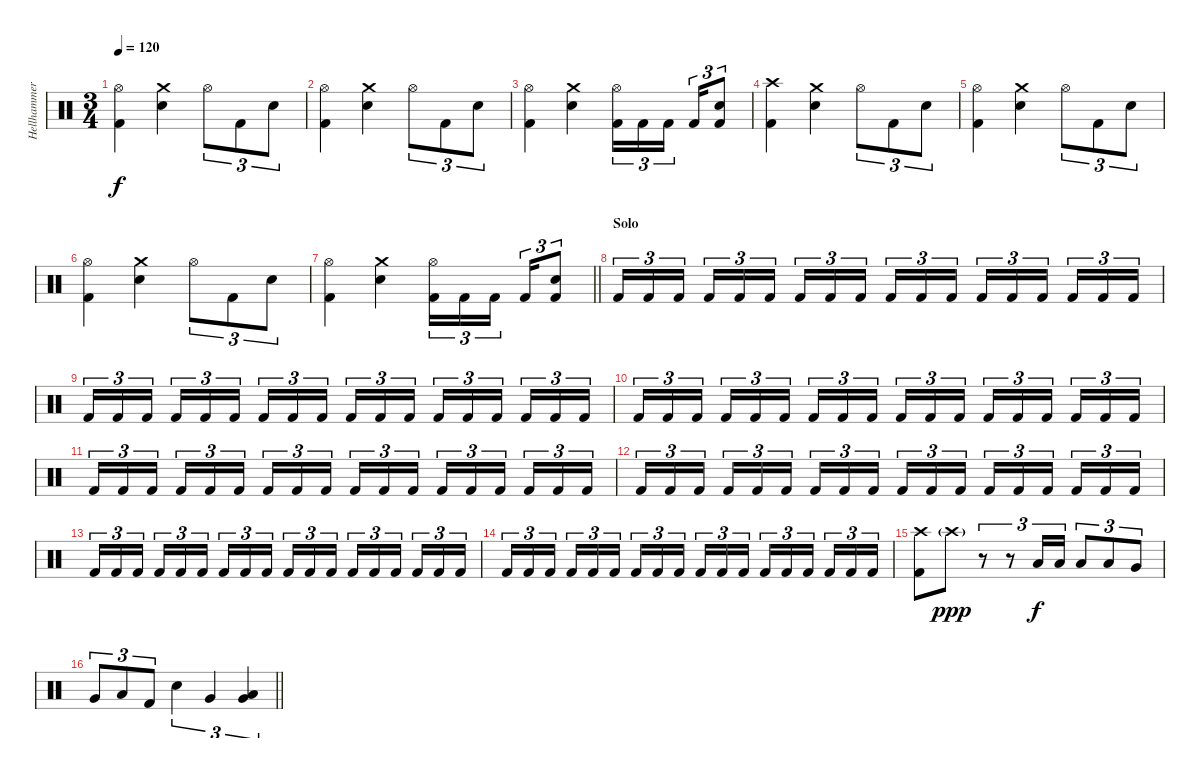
\track ("Hellhammer" "Hellhammer") {instrument percussion}
\staff {score}
\articulation defaults
\ts (3 4)
\tempo 120
\clef neutral
\ks c
("Hi-Hat (open)" "Kick (hit) 2").4{dy f} ("Crash medium (hit)" "Snare (hit) 2").4 "Hi-Hat (open)".8{tu (3 2)} "Kick (hit) 2".8{tu (3 2)} "Snare (hit) 2".8{tu (3 2)} |
("Hi-Hat (open)" "Kick (hit) 2").4 ("Crash medium (hit)" "Snare (hit) 2").4 "Hi-Hat (open)".8{tu (3 2)} "Kick (hit) 2".8{tu (3 2)} "Snare (hit) 2".8{tu (3 2)} |
("Hi-Hat (open)" "Kick (hit) 2").4 ("Crash medium (hit)" "Snare (hit) 2").4 ("Hi-Hat (open)" "Kick (hit) 2").16{tu (3 2)} "Kick (hit) 2".16{tu (3 2)} "Kick (hit) 2".16{tu (3 2) beam splitsecondary} "Kick (hit) 2".16{tu (3 2)} ("Snare (hit) 2" "Kick (hit) 2").8{tu (3 2)} |
("Crash high (hit)" "Kick (hit) 2").4 ("Crash medium (hit)" "Snare (hit) 2").4 "Hi-Hat (open)".8{tu (3 2)} "Kick (hit) 2".8{tu (3 2)} "Snare (hit) 2".8{tu (3 2)} |
("Hi-Hat (open)" "Kick (hit) 2").4 ("Crash medium (hit)" "Snare (hit) 2").4 "Hi-Hat (open)".8{tu (3 2)} "Kick (hit) 2".8{tu (3 2)} "Snare (hit) 2".8{tu (3 2)} |
("Hi-Hat (open)" "Kick (hit) 2").4 ("Crash medium (hit)" "Snare (hit) 2").4 "Hi-Hat (open)".8{tu (3 2)} "Kick (hit) 2".8{tu (3 2)} "Snare (hit) 2".8{tu (3 2)} |
\barLineRight lightlight
("Hi-Hat (open)" "Kick (hit) 2").4 ("Crash medium (hit)" "Snare (hit) 2").4 ("Hi-Hat (open)" "Kick (hit) 2").16{tu (3 2)} "Kick (hit) 2".16{tu (3 2)} "Kick (hit) 2".16{tu (3 2) beam splitsecondary} "Kick (hit) 2".16{tu (3 2)} ("Snare (hit) 2" "Kick (hit) 2").8{tu (3 2)} |
\section ("" "Solo ")
"Kick (hit) 2".16{tu (3 2)} "Kick (hit) 2".16{tu (3 2)} "Kick (hit) 2".16{tu (3 2) beam splitsecondary} "Kick (hit) 2".16{tu (3 2)} "Kick (hit) 2".16{tu (3 2)} "Kick (hit) 2".16{tu (3 2)} "Kick (hit) 2".16{tu (3 2)} "Kick (hit) 2".16{tu (3 2)} "Kick (hit) 2".16{tu (3 2) beam splitsecondary} "Kick (hit) 2".16{tu (3 2)} "Kick (hit) 2".16{tu (3 2)} "Kick (hit) 2".16{tu (3 2)} "Kick (hit) 2".16{tu (3 2)} "Kick (hit) 2".16{tu (3 2)} "Kick (hit) 2".16{tu (3 2) beam splitsecondary} "Kick (hit) 2".16{tu (3 2)} "Kick (hit) 2".16{tu (3 2)} "Kick (hit) 2".16{tu (3 2)} |
"Kick (hit) 2".16{tu (3 2)} "Kick (hit) 2".16{tu (3 2)} "Kick (hit) 2".16{tu (3 2) beam splitsecondary} "Kick (hit) 2".16{tu (3 2)} "Kick (hit) 2".16{tu (3 2)} "Kick (hit) 2".16{tu (3 2)} "Kick (hit) 2".16{tu (3 2)} "Kick (hit) 2".16{tu (3 2)} "Kick (hit) 2".16{tu (3 2) beam splitsecondary} "Kick (hit) 2".16{tu (3 2)} "Kick (hit) 2".16{tu (3 2)} "Kick (hit) 2".16{tu (3 2)} "Kick (hit) 2".16{tu (3 2)} "Kick (hit) 2".16{tu (3 2)} "Kick (hit) 2".16{tu (3 2) beam splitsecondary} "Kick (hit) 2".16{tu (3 2)} "Kick (hit) 2".16{tu (3 2)} "Kick (hit) 2".16{tu (3 2)} |
"Kick (hit) 2".16{tu (3 2)} "Kick (hit) 2".16{tu (3 2)} "Kick (hit) 2".16{tu (3 2) beam splitsecondary} "Kick (hit) 2".16{tu (3 2)} "Kick (hit) 2".16{tu (3 2)} "Kick (hit) 2".16{tu (3 2)} "Kick (hit) 2".16{tu (3 2)} "Kick (hit) 2".16{tu (3 2)} "Kick (hit) 2".16{tu (3 2) beam splitsecondary} "Kick (hit) 2".16{tu (3 2)} "Kick (hit) 2".16{tu (3 2)} "Kick (hit) 2".16{tu (3 2)} "Kick (hit) 2".16{tu (3 2)} "Kick (hit) 2".16{tu (3 2)} "Kick (hit) 2".16{tu (3 2) beam splitsecondary} "Kick (hit) 2".16{tu (3 2)} "Kick (hit) 2".16{tu (3 2)} "Kick (hit) 2".16{tu (3 2)} |
"Kick (hit) 2".16{tu (3 2)} "Kick (hit) 2".16{tu (3 2)} "Kick (hit) 2".16{tu (3 2) beam splitsecondary} "Kick (hit) 2".16{tu (3 2)} "Kick (hit) 2".16{tu (3 2)} "Kick (hit) 2".16{tu (3 2)} "Kick (hit) 2".16{tu (3 2)} "Kick (hit) 2".16{tu (3 2)} "Kick (hit) 2".16{tu (3 2) beam splitsecondary} "Kick (hit) 2".16{tu (3 2)} "Kick (hit) 2".16{tu (3 2)} "Kick (hit) 2".16{tu (3 2)} "Kick (hit) 2".16{tu (3 2)} "Kick (hit) 2".16{tu (3 2)} "Kick (hit) 2".16{tu (3 2) beam splitsecondary} "Kick (hit) 2".16{tu (3 2)} "Kick (hit) 2".16{tu (3 2)} "Kick (hit) 2".16{tu (3 2)} |
"Kick (hit) 2".16{tu (3 2)} "Kick (hit) 2".16{tu (3 2)} "Kick (hit) 2".16{tu (3 2) beam splitsecondary} "Kick (hit) 2".16{tu (3 2)} "Kick (hit) 2".16{tu (3 2)} "Kick (hit) 2".16{tu (3 2)} "Kick (hit) 2".16{tu (3 2)} "Kick (hit) 2".16{tu (3 2)} "Kick (hit) 2".16{tu (3 2) beam splitsecondary} "Kick (hit) 2".16{tu (3 2)} "Kick (hit) 2".16{tu (3 2)} "Kick (hit) 2".16{tu (3 2)} "Kick (hit) 2".16{tu (3 2)} "Kick (hit) 2".16{tu (3 2)} "Kick (hit) 2".16{tu (3 2) beam splitsecondary} "Kick (hit) 2".16{tu (3 2)} "Kick (hit) 2".16{tu (3 2)} "Kick (hit) 2".16{tu (3 2)} |
"Kick (hit) 2".16{tu (3 2)} "Kick (hit) 2".16{tu (3 2)} "Kick (hit) 2".16{tu (3 2) beam splitsecondary} "Kick (hit) 2".16{tu (3 2)} "Kick (hit) 2".16{tu (3 2)} "Kick (hit) 2".16{tu (3 2)} "Kick (hit) 2".16{tu (3 2)} "Kick (hit) 2".16{tu (3 2)} "Kick (hit) 2".16{tu (3 2) beam splitsecondary} "Kick (hit) 2".16{tu (3 2)} "Kick (hit) 2".16{tu (3 2)} "Kick (hit) 2".16{tu (3 2)} "Kick (hit) 2".16{tu (3 2)} "Kick (hit) 2".16{tu (3 2)} "Kick (hit) 2".16{tu (3 2) beam splitsecondary} "Kick (hit) 2".16{tu (3 2)} "Kick (hit) 2".16{tu (3 2)} "Kick (hit) 2".16{tu (3 2)} |
"Kick (hit) 2".16{tu (3 2)} "Kick (hit) 2".16{tu (3 2)} "Kick (hit) 2".16{tu (3 2) beam splitsecondary} "Kick (hit) 2".16{tu (3 2)} "Kick (hit) 2".16{tu (3 2)} "Kick (hit) 2".16{tu (3 2)} "Kick (hit) 2".16{tu (3 2)} "Kick (hit) 2".16{tu (3 2)} "Kick (hit) 2".16{tu (3 2) beam splitsecondary} "Kick (hit) 2".16{tu (3 2)} "Kick (hit) 2".16{tu (3 2)} "Kick (hit) 2".16{tu (3 2)} "Kick (hit) 2".16{tu (3 2)} "Kick (hit) 2".16{tu (3 2)} "Kick (hit) 2".16{tu (3 2) beam splitsecondary} "Kick (hit) 2".16{tu (3 2)} "Kick (hit) 2".16{tu (3 2)} "Kick (hit) 2".16{tu (3 2)} |
("Crash high (hit)" "Kick (hit) 2").8 "Crash high (hit)"{g}.8{dy ppp} r.8{tu (3 2)} r.8{tu (3 2)} "Low Tom (hit)".16{tu (3 2) dy f} "Low Tom (hit)".16{tu (3 2)} "Low Tom (hit)".8{tu (3 2)} "Low Tom (hit)".8{tu (3 2)} "Very Low Tom (hit)".8{tu (3 2)} |
\barLineRight lightlight "Very Low Tom (hit)".8{tu (3 2)} "Low Floor Tom (hit)".8{tu (3 2)} "Kick (hit) 2".8{tu (3 2)} "Snare (hit) 2".4{tu (3 2)} "Very Low Tom (hit)".4{tu (3 2)}
("Very Low Tom (hit)" "Low Floor Tom (hit)").4{tu (3 2)}
